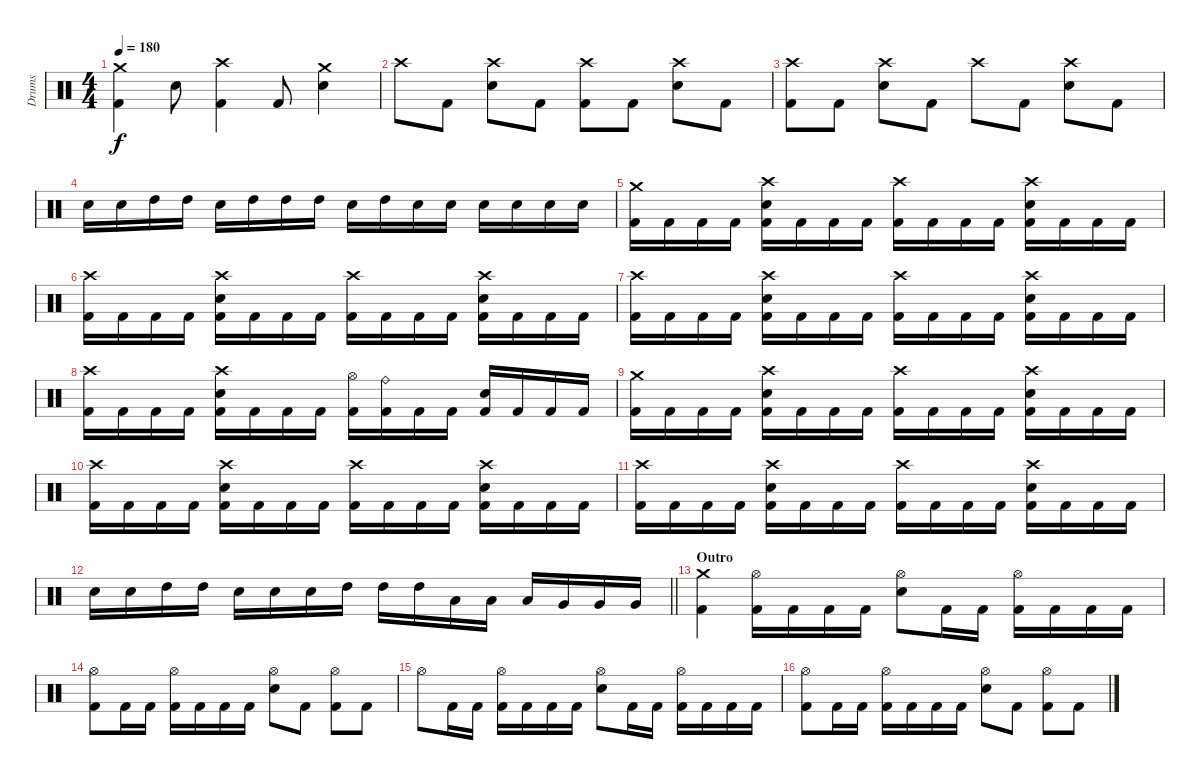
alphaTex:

\track ("Drums" "Drums") {instrument percussion}
\staff {score}
\articulation defaults
\ts (4 4)
\tempo 180
\clef neutral
\ks c
("Crash medium (hit)" "Kick (hit) 2").4{dy f} "Snare (hit) 2".8 ("Crash high (hit)" "Kick (hit) 2").4 "Kick (hit) 2".8 ("Crash medium (hit)" "Snare (hit) 2").4 |
"Crash high (hit)".8 "Kick (hit) 2".8 ("Crash high (hit)" "Snare (hit) 2").8 "Kick (hit) 2".8 ("Crash high (hit)" "Kick (hit) 2").8 "Kick (hit) 2".8 ("Crash high (hit)" "Snare (hit) 2").8 "Kick (hit) 2".8 |
("Crash high (hit)" "Kick (hit) 2").8 "Kick (hit) 2".8 ("Crash high (hit)" "Snare (hit) 2").8 "Kick (hit) 2".8 "Crash high (hit)".8 "Kick (hit) 2".8 ("Crash high (hit)" "Snare (hit) 2").8 "Kick (hit) 2".8 |
"Snare (hit) 2".16 "Snare (hit) 2".16 "High Tom (hit)".16 "High Tom (hit)".16 "Snare (hit) 2".16 "High Tom (hit)".16 "High Tom (hit)".16 "High Tom (hit)".16 "Snare (hit) 2".16 "High Tom (hit)".16 "Snare (hit) 2".16 "Snare (hit) 2".16 "Snare (hit) 2".16 "Snare (hit) 2".16 "Snare (hit) 2".16 "Snare (hit) 2".16 |
("Crash medium (hit)" "Kick (hit) 2").16 "Kick (hit) 2".16 "Kick (hit) 2".16 "Kick (hit) 2".16 ("Crash high (hit)" "Snare (hit) 2" "Kick (hit) 2").16 "Kick (hit) 2".16 "Kick (hit) 2".16 "Kick (hit) 2".16 ("Crash high (hit)" "Kick (hit) 2").16 "Kick (hit) 2".16 "Kick (hit) 2".16 "Kick (hit) 2".16 ("Crash high (hit)" "Snare (hit) 2" "Kick (hit) 2").16 "Kick (hit) 2".16 "Kick (hit) 2".16 "Kick (hit) 2".16 |
("Crash high (hit)" "Kick (hit) 2").16 "Kick (hit) 2".16 "Kick (hit) 2".16 "Kick (hit) 2".16 ("Crash high (hit)" "Snare (hit) 2" "Kick (hit) 2").16 "Kick (hit) 2".16 "Kick (hit) 2".16 "Kick (hit) 2".16 ("Crash high (hit)" "Kick (hit) 2").16 "Kick (hit) 2".16 "Kick (hit) 2".16 "Kick (hit) 2".16 ("Crash high (hit)" "Snare (hit) 2" "Kick (hit) 2").16 "Kick (hit) 2".16 "Kick (hit) 2".16 "Kick (hit) 2".16 |
("Crash high (hit)" "Kick (hit) 2").16 "Kick (hit) 2".16 "Kick (hit) 2".16 "Kick (hit) 2".16 ("Crash high (hit)" "Snare (hit) 2" "Kick (hit) 2").16 "Kick (hit) 2".16 "Kick (hit) 2".16 "Kick (hit) 2".16 ("Crash high (hit)" "Kick (hit) 2").16 "Kick (hit) 2".16 "Kick (hit) 2".16 "Kick (hit) 2".16 ("Crash high (hit)" "Snare (hit) 2" "Kick (hit) 2").16 "Kick (hit) 2".16 "Kick (hit) 2".16 "Kick (hit) 2".16 |
("Crash high (hit)" "Kick (hit) 2").16 "Kick (hit) 2".16 "Kick (hit) 2".16 "Kick (hit) 2".16 ("Crash high (hit)" "Snare (hit) 2" "Kick (hit) 2").16 "Kick (hit) 2".16 "Kick (hit) 2".16 "Kick (hit) 2".16 ("Hi-Hat (open)" "Kick (hit) 2").16 ("Ride (bell)" "Kick (hit) 2").16 "Kick (hit) 2".16 "Kick (hit) 2".16 ("Snare (hit) 2" "Kick (hit) 2").16 "Kick (hit) 2".16 "Kick (hit) 2".16 "Kick (hit) 2".16 |
("Crash medium (hit)" "Kick (hit) 2").16 "Kick (hit) 2".16 "Kick (hit) 2".16 "Kick (hit) 2".16 ("Crash high (hit)" "Snare (hit) 2" "Kick (hit) 2").16 "Kick (hit) 2".16 "Kick (hit) 2".16 "Kick (hit) 2".16 ("Crash high (hit)" "Kick (hit) 2").16 "Kick (hit) 2".16 "Kick (hit) 2".16 "Kick (hit) 2".16 ("Crash high (hit)" "Snare (hit) 2" "Kick (hit) 2").16 "Kick (hit) 2".16 "Kick (hit) 2".16 "Kick (hit) 2".16 |
("Crash high (hit)" "Kick (hit) 2").16 "Kick (hit) 2".16 "Kick (hit) 2".16 "Kick (hit) 2".16 ("Crash high (hit)" "Snare (hit) 2" "Kick (hit) 2").16 "Kick (hit) 2".16 "Kick (hit) 2".16 "Kick (hit) 2".16 ("Crash high (hit)" "Kick (hit) 2").16 "Kick (hit) 2".16 "Kick (hit) 2".16 "Kick (hit) 2".16 ("Crash high (hit)" "Snare (hit) 2" "Kick (hit) 2").16 "Kick (hit) 2".16 "Kick (hit) 2".16 "Kick (hit) 2".16 |
("Crash high (hit)" "Kick (hit) 2").16 "Kick (hit) 2".16 "Kick (hit) 2".16 "Kick (hit) 2".16 ("Crash high (hit)" "Snare (hit) 2" "Kick (hit) 2").16 "Kick (hit) 2".16 "Kick (hit) 2".16 "Kick (hit) 2".16 ("Crash high (hit)" "Kick (hit) 2").16 "Kick (hit) 2".16 "Kick (hit) 2".16 "Kick (hit) 2".16 ("Crash high (hit)" "Snare (hit) 2" "Kick (hit) 2").16 "Kick (hit) 2".16 "Kick (hit) 2".16 "Kick (hit) 2".16 |
\barLineRight lightlight "Snare (hit) 2".16 "Snare (hit) 2".16 "High Tom (hit)".16 "High Tom (hit)".16 "Snare (hit) 2".16 "Snare (hit) 2".16 "Snare (hit) 2".16 "High Tom (hit)".16 "High Tom (hit)".16 "High Tom (hit)".16 "Low Tom (hit)".16 "Low Tom (hit)".16 "Low Tom (hit)".16 "Very Low Tom (hit)".16 "Very Low Tom (hit)".16 "Very Low Tom (hit)".16
|
\section ("" "Outro")
("Crash medium (hit)" "Kick (hit) 2").4 ("Hi-Hat (open)" "Kick (hit) 2").16 "Kick (hit) 2".16 "Kick (hit) 2".16 "Kick (hit) 2".16 ("Hi-Hat (open)" "Snare (hit) 2").8 "Kick (hit) 2".16 "Kick (hit) 2".16 ("Hi-Hat (open)" "Kick (hit) 2").16 "Kick (hit) 2".16 "Kick (hit) 2".16 "Kick (hit) 2".16 |
("Hi-Hat (open)" "Kick (hit) 2").8 "Kick (hit) 2".16 "Kick (hit) 2".16 ("Hi-Hat (open)" "Kick (hit) 2").16 "Kick (hit) 2".16 "Kick (hit) 2".16 "Kick (hit) 2".16 ("Hi-Hat (open)" "Snare (hit) 2").8 "Kick (hit) 2".8 ("Hi-Hat (open)" "Kick (hit) 2").8 "Kick (hit) 2".8 |
"Hi-Hat (open)".8 "Kick (hit) 2".16 "Kick (hit) 2".16 ("Hi-Hat (open)" "Kick (hit) 2").16 "Kick (hit) 2".16 "Kick (hit) 2".16 "Kick (hit) 2".16 ("Hi-Hat (open)" "Snare (hit) 2").8 "Kick (hit) 2".16 "Kick (hit) 2".16 ("Hi-Hat (open)" "Kick (hit) 2").16 "Kick (hit) 2".16 "Kick (hit) 2".16 "Kick (hit) 2".16 |
("Hi-Hat (open)" "Kick (hit) 2").8 "Kick (hit) 2".16 "Kick (hit) 2".16 ("Hi-Hat (open)" "Kick (hit) 2").16 "Kick (hit) 2".16 "Kick (hit) 2".16 "Kick (hit) 2".16 ("Hi-Hat (open)" "Snare (hit) 2").8 "Kick (hit) 2".8 ("Hi-Hat (open)" "Kick (hit) 2").8 "Kick (hit) 2".8
